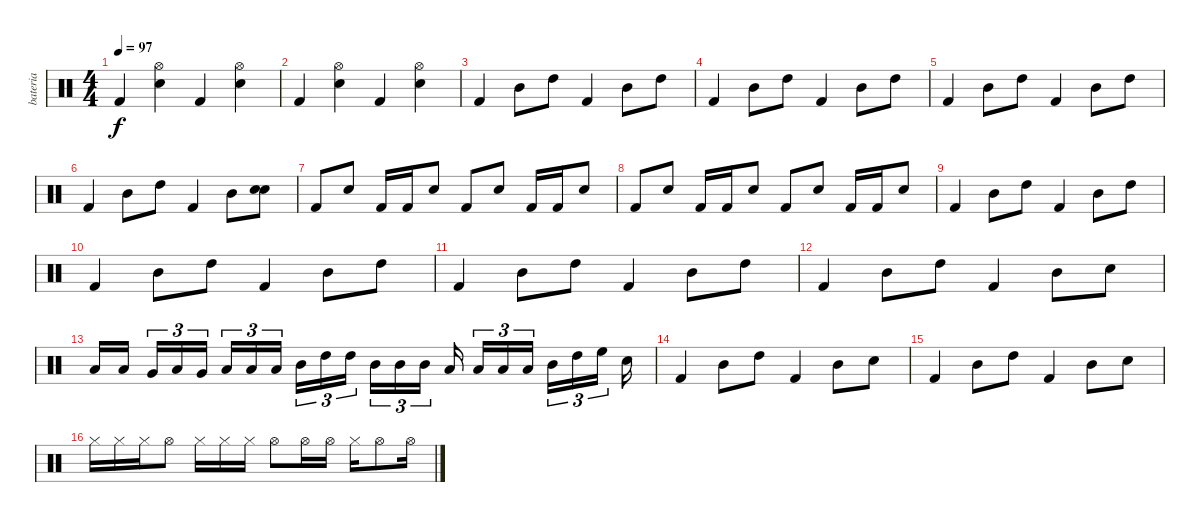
\track ("bateria" "bateria") {instrument percussion}
\staff {score}
\articulation defaults
\ts (4 4)
\tempo 97
\clef neutral
\ks c "Kick (hit) 2".4{dy f}
("Hi-Hat (open)" "Electric Snare (hit)").4 "Kick (hit) 2".4 ("Hi-Hat (open)" "Electric Snare (hit)").4 |
"Kick (hit) 2".4 ("Hi-Hat (open)" "Electric Snare (hit)").4 "Kick (hit) 2".4 ("Hi-Hat (open)" "Electric Snare (hit)").4 |
"Kick (hit) 2".4 "Mid Tom (hit)".8 "High Tom (hit)".8 "Kick (hit) 2".4 "Mid Tom (hit)".8 "High Tom (hit)".8 |
"Kick (hit) 2".4 "Mid Tom (hit)".8 "High Tom (hit)".8 "Kick (hit) 2".4 "Mid Tom (hit)".8 "High Tom (hit)".8 |
"Kick (hit) 2".4 "Mid Tom (hit)".8 "High Tom (hit)".8 "Kick (hit) 2".4 "Mid Tom (hit)".8 "High Tom (hit)".8 |
"Kick (hit) 2".4 "Mid Tom (hit)".8 "High Tom (hit)".8 "Kick (hit) 2".4 "Mid Tom (hit)".8 ("Snare (hit) 2" "Electric Snare (hit)").8 |
"Kick (hit) 2".8 "Electric Snare (hit)".8 "Kick (hit) 2".16 "Kick (hit) 2".16 "Electric Snare (hit)".8 "Kick (hit) 2".8 "Electric Snare (hit)".8 "Kick (hit) 2".16 "Kick (hit) 2".16 "Electric Snare (hit)".8 |
"Kick (hit) 2".8 "Electric Snare (hit)".8 "Kick (hit) 2".16 "Kick (hit) 2".16 "Electric Snare (hit)".8 "Kick (hit) 2".8 "Electric Snare (hit)".8 "Kick (hit) 2".16 "Kick (hit) 2".16 "Electric Snare (hit)".8 |
"Kick (hit) 2".4 "Mid Tom (hit)".8 "High Tom (hit)".8 "Kick (hit) 2".4 "Mid Tom (hit)".8 "High Tom (hit)".8 |
"Kick (hit) 2".4 "Mid Tom (hit)".8 "High Tom (hit)".8 "Kick (hit) 2".4 "Mid Tom (hit)".8 "High Tom (hit)".8 |
"Kick (hit) 2".4 "Mid Tom (hit)".8 "High Tom (hit)".8 "Kick (hit) 2".4 "Mid Tom (hit)".8 "High Tom (hit)".8 |
"Kick (hit) 2".4 "Mid Tom (hit)".8 "High Tom (hit)".8 "Kick (hit) 2".4 "Mid Tom (hit)".8 "Electric Snare (hit)".8 |
"Low Tom (hit)".16 "Low Tom (hit)".16 "Very Low Tom (hit)".16{tu (3 2)} "Low Tom (hit)".16{tu (3 2)} "Very Low Tom (hit)".16{tu (3 2)} "Low Tom (hit)".16{tu (3 2)} "Low Tom (hit)".16{tu (3 2)} "Low Tom (hit)".16{tu (3 2)} "Mid Tom (hit)".16{tu (3 2)} "High Tom (hit)".16{tu (3 2)} "High Tom (hit)".16{tu (3 2)} "Mid Tom (hit)".16{tu (3 2)} "Mid Tom (hit)".16{tu (3 2)} "Mid Tom (hit)".16{tu (3 2)} "Low Tom (hit)".16 "Low Tom (hit)".16{tu (3 2)} "Low Tom (hit)".16{tu (3 2)} "Low Tom (hit)".16{tu (3 2)} "Mid Tom (hit)".16{tu (3 2)} "High Tom (hit)".16{tu (3 2)} "High Floor Tom (hit)".16{tu (3 2)} "Snare (hit) 2".16 |
"Kick (hit) 2".4 "Mid Tom (hit)".8 "High Tom (hit)".8 "Kick (hit) 2".4 "Mid Tom (hit)".8 "Electric Snare (hit)".8 |
"Kick (hit) 2".4 "Mid Tom (hit)".8 "High Tom (hit)".8 "Kick (hit) 2".4 "Mid Tom (hit)".8 "Electric Snare (hit)".8 |
"Hi-Hat (closed)".16 "Hi-Hat (closed)".16 "Hi-Hat (closed)".16 "Hi-Hat (open)".8 "Hi-Hat (closed)".16 "Hi-Hat (closed)".16 "Hi-Hat (closed)".16 "Hi-Hat (open)".8 "Hi-Hat (open)".16 "Hi-Hat (open)".16 "Hi-Hat (closed)".16 "Hi-Hat (open)".8 "Hi-Hat (open)".16
